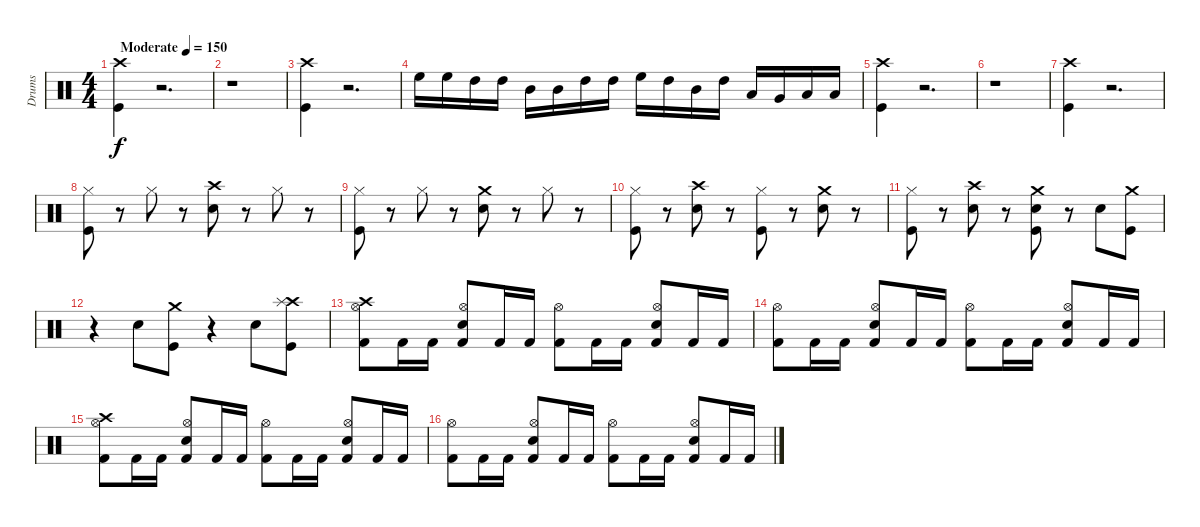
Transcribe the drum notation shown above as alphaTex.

\track ("Drums" "Drums") {instrument percussion}
\staff {score}
\articulation defaults
\ts (4 4)
\tempo (150 "Moderate")
\clef neutral
\ks c
("Kick (hit)" "Crash high (hit)").4{dy f} r.2{d} |
r.1 |
("Kick (hit)" "Crash high (hit)").4 r.2{d} |
"High Floor Tom (hit)".16 "High Floor Tom (hit)".16 "High Tom (hit)".16 "High Tom (hit)".16 "Mid Tom (hit)".16 "Mid Tom (hit)".16 "High Tom (hit)".16 "High Tom (hit)".16 "High Floor Tom (hit)".16 "High Tom (hit)".16 "Mid Tom (hit)".16 "High Tom (hit)".16 "Low Tom (hit)".16 "Very Low Tom (hit)".16 "Low Tom (hit)".16 "Low Floor Tom (hit)".16 |
("Kick (hit)" "Crash high (hit)").4 r.2{d} |
r.1 |
("Kick (hit)" "Crash high (hit)").4 r.2{d} |
("Kick (hit)" "Hi-Hat (closed)").8 r.8 "Hi-Hat (closed)".8 r.8 ("Snare (hit) 2" "Crash high (hit)").8 r.8 "Hi-Hat (closed)".8 r.8 |
("Kick (hit)" "Hi-Hat (closed)").8 r.8 "Hi-Hat (closed)".8 r.8 ("Snare (hit) 2" "Crash medium (hit)").8 r.8 "Hi-Hat (closed)".8 r.8 |
("Kick (hit)" "Hi-Hat (closed)").8 r.8 ("Snare (hit) 2" "Crash high (hit)").8 r.8 ("Kick (hit)" "Hi-Hat (closed)").8 r.8 ("Snare (hit) 2" "Crash medium (hit)").8 r.8 |
("Kick (hit)" "Hi-Hat (closed)").8 r.8 ("Snare (hit) 2" "Crash high (hit)").8 r.8 ("Kick (hit)" "Snare (hit) 2" "Crash medium (hit)").8 r.8 "Snare (hit) 2".8 ("Kick (hit)" "Crash medium (hit)").8 |
r.4 "Snare (hit) 2".8 ("Kick (hit)" "Crash medium (hit)").8 r.4 "Snare (hit) 2".8 ("Kick (hit)" "Crash high (hit)" "Splash (hit)").8 |
("Crash high (hit)" "Hi-Hat (open)" "Kick (hit) 2").8 "Kick (hit) 2".16 "Kick (hit) 2".16 ("Hi-Hat (open)" "Snare (hit) 2" "Kick (hit) 2").8 "Kick (hit) 2".16 "Kick (hit) 2".16 ("Hi-Hat (open)" "Kick (hit) 2").8 "Kick (hit) 2".16 "Kick (hit) 2".16 ("Hi-Hat (open)" "Snare (hit) 2" "Kick (hit) 2").8 "Kick (hit) 2".16 "Kick (hit) 2".16 |
("Hi-Hat (open)" "Kick (hit) 2").8 "Kick (hit) 2".16 "Kick (hit) 2".16 ("Hi-Hat (open)" "Snare (hit) 2" "Kick (hit) 2").8 "Kick (hit) 2".16 "Kick (hit) 2".16 ("Hi-Hat (open)" "Kick (hit) 2").8 "Kick (hit) 2".16 "Kick (hit) 2".16 ("Hi-Hat (open)" "Snare (hit) 2" "Kick (hit) 2").8 "Kick (hit) 2".16 "Kick (hit) 2".16 |
("Crash high (hit)" "Hi-Hat (open)" "Kick (hit) 2").8 "Kick (hit) 2".16 "Kick (hit) 2".16 ("Hi-Hat (open)" "Snare (hit) 2" "Kick (hit) 2").8 "Kick (hit) 2".16 "Kick (hit) 2".16 ("Hi-Hat (open)" "Kick (hit) 2").8 "Kick (hit) 2".16 "Kick (hit) 2".16 ("Hi-Hat (open)" "Snare (hit) 2" "Kick (hit) 2").8 "Kick (hit) 2".16 "Kick (hit) 2".16 |
("Hi-Hat (open)" "Kick (hit) 2").8 "Kick (hit) 2".16 "Kick (hit) 2".16 ("Hi-Hat (open)" "Snare (hit) 2" "Kick (hit) 2").8 "Kick (hit) 2".16 "Kick (hit) 2".16 ("Hi-Hat (open)" "Kick (hit) 2").8 "Kick (hit) 2".16 "Kick (hit) 2".16 ("Hi-Hat (open)" "Snare (hit) 2" "Kick (hit) 2").8 "Kick (hit) 2".16 "Kick (hit) 2".16
